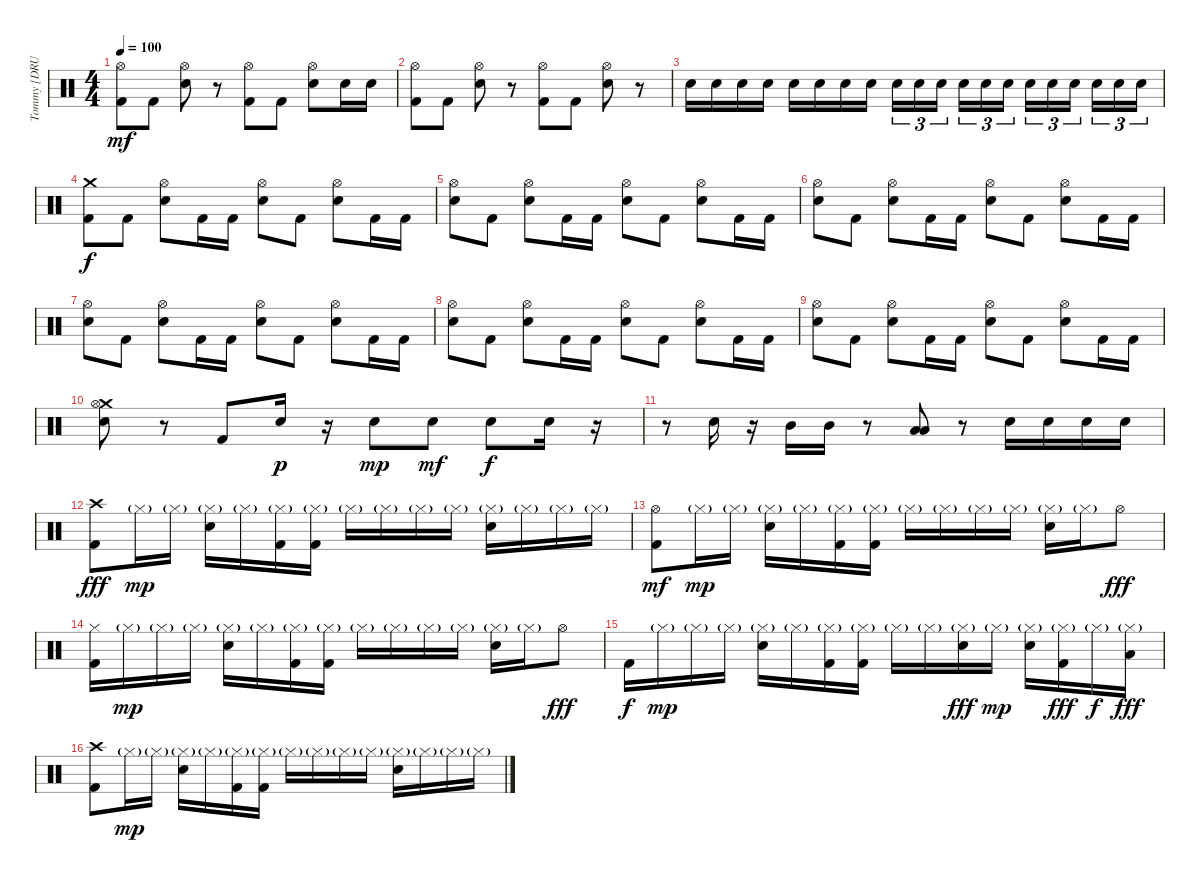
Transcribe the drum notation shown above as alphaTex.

\track ("Tommy [DRUMS]" "Tommy [DRU") {instrument percussion}
\staff {score}
\articulation defaults
\ts (4 4)
\tempo 100
\clef neutral
\ks c
("Hi-Hat (open)" "Kick (hit) 2").8{dy mf} "Kick (hit) 2".8 ("Hi-Hat (open)" "Snare (hit) 2").8 r.8 ("Hi-Hat (open)" "Kick (hit) 2").8 "Kick (hit) 2".8 ("Hi-Hat (open)" "Snare (hit) 2").8 "Snare (hit) 2".16 "Snare (hit) 2".16 |
("Hi-Hat (open)" "Kick (hit) 2").8 "Kick (hit) 2".8 ("Hi-Hat (open)" "Snare (hit) 2").8 r.8 ("Hi-Hat (open)" "Kick (hit) 2").8 "Kick (hit) 2".8 ("Hi-Hat (open)" "Snare (hit) 2").8 r.8 |
"Snare (hit) 2".16 "Snare (hit) 2".16 "Snare (hit) 2".16 "Snare (hit) 2".16 "Snare (hit) 2".16 "Snare (hit) 2".16 "Snare (hit) 2".16 "Snare (hit) 2".16 "Snare (hit) 2".16{tu (3 2)} "Snare (hit) 2".16{tu (3 2)} "Snare (hit) 2".16{tu (3 2) beam splitsecondary} "Snare (hit) 2".16{tu (3 2)} "Snare (hit) 2".16{tu (3 2)} "Snare (hit) 2".16{tu (3 2)} "Snare (hit) 2".16{tu (3 2)} "Snare (hit) 2".16{tu (3 2)} "Snare (hit) 2".16{tu (3 2) beam splitsecondary} "Snare (hit) 2".16{tu (3 2)} "Snare (hit) 2".16{tu (3 2)} "Snare (hit) 2".16{tu (3 2)} |
("Crash medium (hit)" "Kick (hit) 2").8{dy f} "Kick (hit) 2".8 ("Hi-Hat (open)" "Snare (hit) 2").8 "Kick (hit) 2".16 "Kick (hit) 2".16 ("Hi-Hat (open)" "Snare (hit) 2").8 "Kick (hit) 2".8 ("Hi-Hat (open)" "Snare (hit) 2").8 "Kick (hit) 2".16 "Kick (hit) 2".16 |
("Hi-Hat (open)" "Snare (hit) 2").8 "Kick (hit) 2".8 ("Hi-Hat (open)" "Snare (hit) 2").8 "Kick (hit) 2".16 "Kick (hit) 2".16 ("Hi-Hat (open)" "Snare (hit) 2").8 "Kick (hit) 2".8 ("Hi-Hat (open)" "Snare (hit) 2").8 "Kick (hit) 2".16 "Kick (hit) 2".16 |
("Hi-Hat (open)" "Snare (hit) 2").8 "Kick (hit) 2".8 ("Hi-Hat (open)" "Snare (hit) 2").8 "Kick (hit) 2".16 "Kick (hit) 2".16 ("Hi-Hat (open)" "Snare (hit) 2").8 "Kick (hit) 2".8 ("Hi-Hat (open)" "Snare (hit) 2").8 "Kick (hit) 2".16 "Kick (hit) 2".16 |
("Hi-Hat (open)" "Snare (hit) 2").8 "Kick (hit) 2".8 ("Hi-Hat (open)" "Snare (hit) 2").8 "Kick (hit) 2".16 "Kick (hit) 2".16 ("Hi-Hat (open)" "Snare (hit) 2").8 "Kick (hit) 2".8 ("Hi-Hat (open)" "Snare (hit) 2").8 "Kick (hit) 2".16 "Kick (hit) 2".16 |
("Hi-Hat (open)" "Snare (hit) 2").8 "Kick (hit) 2".8 ("Hi-Hat (open)" "Snare (hit) 2").8 "Kick (hit) 2".16 "Kick (hit) 2".16 ("Hi-Hat (open)" "Snare (hit) 2").8 "Kick (hit) 2".8 ("Hi-Hat (open)" "Snare (hit) 2").8 "Kick (hit) 2".16 "Kick (hit) 2".16 |
("Hi-Hat (open)" "Snare (hit) 2").8 "Kick (hit) 2".8 ("Hi-Hat (open)" "Snare (hit) 2").8 "Kick (hit) 2".16 "Kick (hit) 2".16 ("Hi-Hat (open)" "Snare (hit) 2").8 "Kick (hit) 2".8 ("Hi-Hat (open)" "Snare (hit) 2").8 "Kick (hit) 2".16 "Kick (hit) 2".16 |
("Crash medium (hit)" "Hi-Hat (open)" "Snare (hit) 2").8 r.8 "Kick (hit) 2".8 "Snare (hit) 2".16{dy p} r.16 "Snare (hit) 2".8{dy mp} "Snare (hit) 2".8{dy mf} "Snare (hit) 2".8{dy f} "Snare (hit) 2".16 r.16 |
r.8 "Snare (hit) 2".16 r.16 "Mid Tom (hit)".16 "Mid Tom (hit)".16 r.8 ("Low Tom (hit)" "Low Tom (hit)").8 r.8 "Snare (hit) 2".16 "Snare (hit) 2".16 "Snare (hit) 2".16 "Snare (hit) 2".16 |
("Crash high (hit)" "Kick (hit) 2").8{dy fff} "Hi-Hat (closed)"{g}.16{dy mp} "Hi-Hat (closed)"{g}.16 ("Hi-Hat (closed)"{g} "Snare (hit) 2").16 "Hi-Hat (closed)"{g}.16 ("Hi-Hat (closed)"{g} "Kick (hit) 2").16 ("Hi-Hat (closed)"{g} "Kick (hit) 2").16 "Hi-Hat (closed)"{g}.16 "Hi-Hat (closed)"{g}.16 "Hi-Hat (closed)"{g}.16 "Hi-Hat (closed)"{g}.16 ("Hi-Hat (closed)"{g} "Snare (hit) 2").16 "Hi-Hat (closed)"{g}.16 "Hi-Hat (closed)"{g}.16 "Hi-Hat (closed)"{g}.16 |
("Hi-Hat (open)" "Kick (hit) 2").8{dy mf} "Hi-Hat (closed)"{g}.16{dy mp} "Hi-Hat (closed)"{g}.16 ("Hi-Hat (closed)"{g} "Snare (hit) 2").16 "Hi-Hat (closed)"{g}.16 ("Hi-Hat (closed)"{g} "Kick (hit) 2").16 ("Hi-Hat (closed)"{g} "Kick (hit) 2").16 "Hi-Hat (closed)"{g}.16 "Hi-Hat (closed)"{g}.16 "Hi-Hat (closed)"{g}.16 "Hi-Hat (closed)"{g}.16 ("Hi-Hat (closed)"{g} "Snare (hit) 2").16 "Hi-Hat (closed)"{g}.16 "Hi-Hat (open)".8{dy fff} |
("Hi-Hat (closed)" "Kick (hit) 2").16 "Hi-Hat (closed)"{g}.16{dy mp} "Hi-Hat (closed)"{g}.16 "Hi-Hat (closed)"{g}.16 ("Hi-Hat (closed)"{g} "Snare (hit) 2").16 "Hi-Hat (closed)"{g}.16 ("Hi-Hat (closed)"{g} "Kick (hit) 2").16 ("Hi-Hat (closed)"{g} "Kick (hit) 2").16 "Hi-Hat (closed)"{g}.16 "Hi-Hat (closed)"{g}.16 "Hi-Hat (closed)"{g}.16 "Hi-Hat (closed)"{g}.16 ("Hi-Hat (closed)"{g} "Snare (hit) 2").16 "Hi-Hat (closed)"{g}.16 "Hi-Hat (open)".8{dy fff} |
"Kick (hit) 2".16{dy f} "Hi-Hat (closed)"{g}.16{dy mp} "Hi-Hat (closed)"{g}.16 "Hi-Hat (closed)"{g}.16 ("Hi-Hat (closed)"{g} "Snare (hit) 2").16 "Hi-Hat (closed)"{g}.16 ("Hi-Hat (closed)"{g} "Kick (hit) 2").16 ("Hi-Hat (closed)"{g} "Kick (hit) 2").16 "Hi-Hat (closed)"{g}.16 "Hi-Hat (closed)"{g}.16 ("Hi-Hat (closed)"{g} "Snare (hit) 2").16{dy fff} "Hi-Hat (closed)"{g}.16{dy mp} ("Hi-Hat (closed)"{g} "Snare (hit) 2").16 ("Hi-Hat (closed)"{g} "Kick (hit) 2").16{dy fff} "Hi-Hat (closed)"{g}.16{dy f} ("Hi-Hat (closed)"{g} "Low Tom (hit)").16{dy fff} |
("Crash high (hit)" "Kick (hit) 2").8 "Hi-Hat (closed)"{g}.16{dy mp} "Hi-Hat (closed)"{g}.16 ("Hi-Hat (closed)"{g} "Snare (hit) 2").16 "Hi-Hat (closed)"{g}.16 ("Hi-Hat (closed)"{g} "Kick (hit) 2").16 ("Hi-Hat (closed)"{g} "Kick (hit) 2").16 "Hi-Hat (closed)"{g}.16 "Hi-Hat (closed)"{g}.16 "Hi-Hat (closed)"{g}.16 "Hi-Hat (closed)"{g}.16 ("Hi-Hat (closed)"{g} "Snare (hit) 2").16 "Hi-Hat (closed)"{g}.16 "Hi-Hat (closed)"{g}.16 "Hi-Hat (closed)"{g}.16
